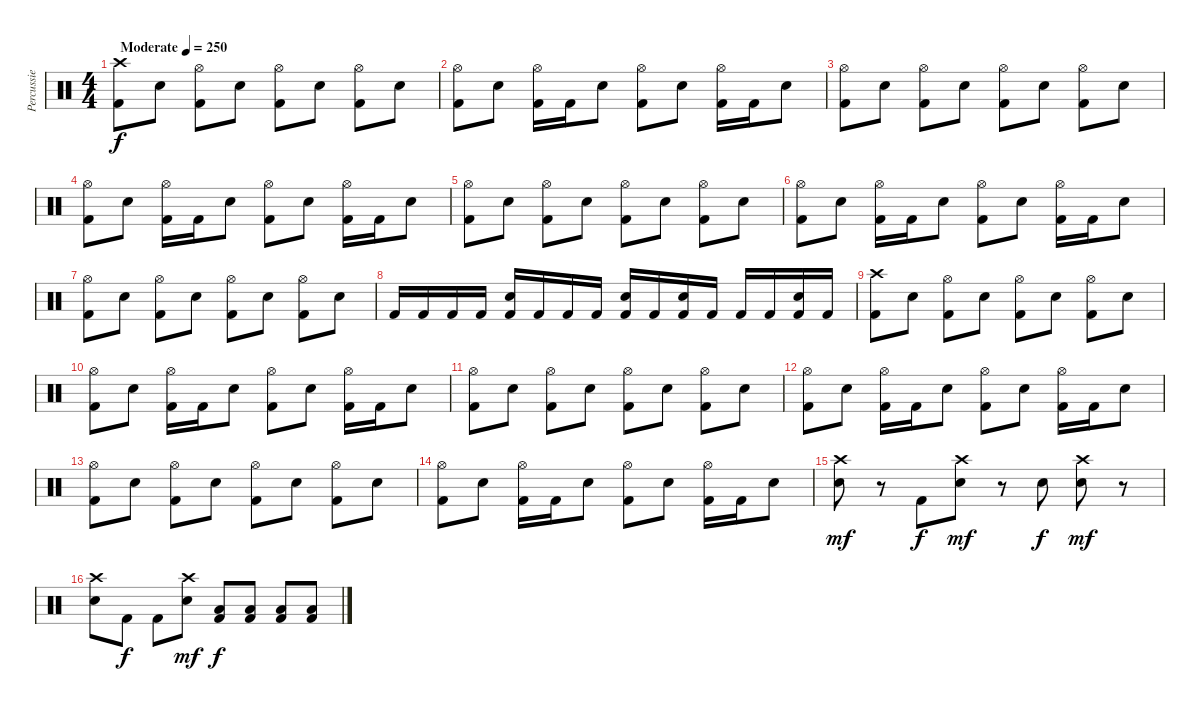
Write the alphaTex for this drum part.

\track ("Percussie" "Percussie") {instrument percussion}
\staff {score}
\articulation defaults
\ts (4 4)
\tempo (250 "Moderate")
\clef neutral
\ks c
("Kick (hit) 2" "Crash high (hit)").8{dy f} "Snare (hit) 2".8 ("Kick (hit) 2" "Hi-Hat (open)").8 "Snare (hit) 2".8 ("Kick (hit) 2" "Hi-Hat (open)").8 "Snare (hit) 2".8 ("Kick (hit) 2" "Hi-Hat (open)").8 "Snare (hit) 2".8 |
("Kick (hit) 2" "Hi-Hat (open)").8 "Snare (hit) 2".8 ("Kick (hit) 2" "Hi-Hat (open)").16 "Kick (hit) 2".16 "Snare (hit) 2".8 ("Kick (hit) 2" "Hi-Hat (open)").8 "Snare (hit) 2".8 ("Kick (hit) 2" "Hi-Hat (open)").16 "Kick (hit) 2".16 "Snare (hit) 2".8 |
("Kick (hit) 2" "Hi-Hat (open)").8 "Snare (hit) 2".8 ("Kick (hit) 2" "Hi-Hat (open)").8 "Snare (hit) 2".8 ("Kick (hit) 2" "Hi-Hat (open)").8 "Snare (hit) 2".8 ("Kick (hit) 2" "Hi-Hat (open)").8 "Snare (hit) 2".8 |
("Kick (hit) 2" "Hi-Hat (open)").8 "Snare (hit) 2".8 ("Kick (hit) 2" "Hi-Hat (open)").16 "Kick (hit) 2".16 "Snare (hit) 2".8 ("Kick (hit) 2" "Hi-Hat (open)").8 "Snare (hit) 2".8 ("Kick (hit) 2" "Hi-Hat (open)").16 "Kick (hit) 2".16 "Snare (hit) 2".8 |
("Kick (hit) 2" "Hi-Hat (open)").8 "Snare (hit) 2".8 ("Kick (hit) 2" "Hi-Hat (open)").8 "Snare (hit) 2".8 ("Kick (hit) 2" "Hi-Hat (open)").8 "Snare (hit) 2".8 ("Kick (hit) 2" "Hi-Hat (open)").8 "Snare (hit) 2".8 |
("Kick (hit) 2" "Hi-Hat (open)").8 "Snare (hit) 2".8 ("Kick (hit) 2" "Hi-Hat (open)").16 "Kick (hit) 2".16 "Snare (hit) 2".8 ("Kick (hit) 2" "Hi-Hat (open)").8 "Snare (hit) 2".8 ("Kick (hit) 2" "Hi-Hat (open)").16 "Kick (hit) 2".16 "Snare (hit) 2".8 |
("Kick (hit) 2" "Hi-Hat (open)").8 "Snare (hit) 2".8 ("Kick (hit) 2" "Hi-Hat (open)").8 "Snare (hit) 2".8 ("Kick (hit) 2" "Hi-Hat (open)").8 "Snare (hit) 2".8 ("Kick (hit) 2" "Hi-Hat (open)").8 "Snare (hit) 2".8 |
"Kick (hit) 2".16 "Kick (hit) 2".16 "Kick (hit) 2".16 "Kick (hit) 2".16 ("Kick (hit) 2" "Snare (hit) 2").16 "Kick (hit) 2".16 "Kick (hit) 2".16 "Kick (hit) 2".16 ("Kick (hit) 2" "Snare (hit) 2").16 "Kick (hit) 2".16 ("Kick (hit) 2" "Snare (hit) 2").16 "Kick (hit) 2".16 "Kick (hit) 2".16 "Kick (hit) 2".16 ("Kick (hit) 2" "Snare (hit) 2").16 "Kick (hit) 2".16 |
("Kick (hit) 2" "Crash high (hit)").8 "Snare (hit) 2".8 ("Kick (hit) 2" "Hi-Hat (open)").8 "Snare (hit) 2".8 ("Kick (hit) 2" "Hi-Hat (open)").8 "Snare (hit) 2".8 ("Kick (hit) 2" "Hi-Hat (open)").8 "Snare (hit) 2".8 |
("Kick (hit) 2" "Hi-Hat (open)").8 "Snare (hit) 2".8 ("Kick (hit) 2" "Hi-Hat (open)").16 "Kick (hit) 2".16 "Snare (hit) 2".8 ("Kick (hit) 2" "Hi-Hat (open)").8 "Snare (hit) 2".8 ("Kick (hit) 2" "Hi-Hat (open)").16 "Kick (hit) 2".16 "Snare (hit) 2".8 |
("Kick (hit) 2" "Hi-Hat (open)").8 "Snare (hit) 2".8 ("Kick (hit) 2" "Hi-Hat (open)").8 "Snare (hit) 2".8 ("Kick (hit) 2" "Hi-Hat (open)").8 "Snare (hit) 2".8 ("Kick (hit) 2" "Hi-Hat (open)").8 "Snare (hit) 2".8 |
("Kick (hit) 2" "Hi-Hat (open)").8 "Snare (hit) 2".8 ("Kick (hit) 2" "Hi-Hat (open)").16 "Kick (hit) 2".16 "Snare (hit) 2".8 ("Kick (hit) 2" "Hi-Hat (open)").8 "Snare (hit) 2".8 ("Kick (hit) 2" "Hi-Hat (open)").16 "Kick (hit) 2".16 "Snare (hit) 2".8 |
("Kick (hit) 2" "Hi-Hat (open)").8 "Snare (hit) 2".8 ("Kick (hit) 2" "Hi-Hat (open)").8 "Snare (hit) 2".8 ("Kick (hit) 2" "Hi-Hat (open)").8 "Snare (hit) 2".8 ("Kick (hit) 2" "Hi-Hat (open)").8 "Snare (hit) 2".8 |
("Kick (hit) 2" "Hi-Hat (open)").8 "Snare (hit) 2".8 ("Kick (hit) 2" "Hi-Hat (open)").16 "Kick (hit) 2".16 "Snare (hit) 2".8 ("Kick (hit) 2" "Hi-Hat (open)").8 "Snare (hit) 2".8 ("Kick (hit) 2" "Hi-Hat (open)").16 "Kick (hit) 2".16 "Snare (hit) 2".8 |
("Snare (hit) 2" "Crash high (hit)").8{dy mf} r.8 "Kick (hit) 2".8{dy f} ("Snare (hit) 2" "Crash high (hit)").8{dy mf} r.8 "Snare (hit) 2".8{dy f} ("Snare (hit) 2" "Crash high (hit)").8{dy mf} r.8 |
("Snare (hit) 2" "Crash high (hit)").8 "Kick (hit) 2".8{dy f} "Kick (hit) 2".8 ("Snare (hit) 2" "Crash high (hit)").8{dy mf} ("Kick (hit) 2" "Low Floor Tom (hit)").8{dy f} ("Kick (hit) 2" "Low Floor Tom (hit)").8 ("Kick (hit) 2" "Low Floor Tom (hit)").8 ("Kick (hit) 2" "Low Floor Tom (hit)").8
